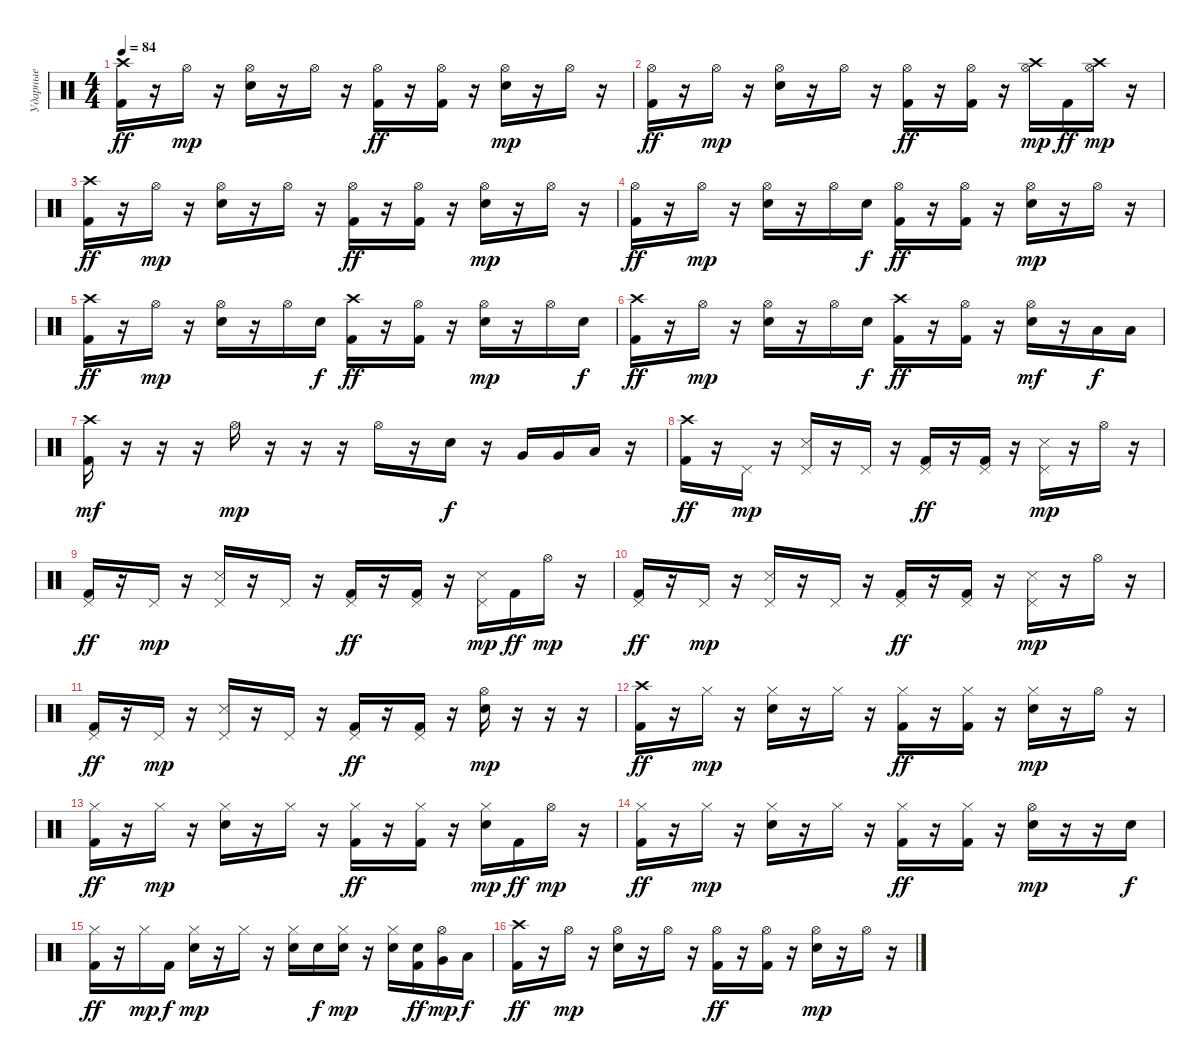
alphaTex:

\track ("Ударные" "Ударные") {instrument percussion}
\staff {score}
\articulation defaults
\ts (4 4)
\tempo 84
\clef neutral
\ks c
("Crash high (hit)" "Kick (hit) 2").16{dy ff} r.16 "Hi-Hat (open)".16{dy mp} r.16 ("Hi-Hat (open)" "Electric Snare (hit)").16 r.16 "Hi-Hat (open)".16 r.16 ("Hi-Hat (open)" "Kick (hit) 2").16{dy ff} r.16 ("Hi-Hat (open)" "Kick (hit) 2").16 r.16 ("Hi-Hat (open)" "Electric Snare (hit)").16{dy mp} r.16 "Hi-Hat (open)".16 r.16 |
("Hi-Hat (open)" "Kick (hit) 2").16{dy ff} r.16 "Hi-Hat (open)".16{dy mp} r.16 ("Hi-Hat (open)" "Electric Snare (hit)").16 r.16 "Hi-Hat (open)".16 r.16 ("Hi-Hat (open)" "Kick (hit) 2").16{dy ff} r.16 ("Hi-Hat (open)" "Kick (hit) 2").16 r.16 ("Hi-Hat (open)" "Crash high (hit)").16{dy mp} "Kick (hit) 2".16{dy ff} ("Hi-Hat (open)" "Crash high (hit)").16{dy mp} r.16 |
("Crash high (hit)" "Kick (hit) 2").16{dy ff} r.16 "Hi-Hat (open)".16{dy mp} r.16 ("Hi-Hat (open)" "Electric Snare (hit)").16 r.16 "Hi-Hat (open)".16 r.16 ("Hi-Hat (open)" "Kick (hit) 2").16{dy ff} r.16 ("Hi-Hat (open)" "Kick (hit) 2").16 r.16 ("Hi-Hat (open)" "Electric Snare (hit)").16{dy mp} r.16 "Hi-Hat (open)".16 r.16 |
("Hi-Hat (open)" "Kick (hit) 2").16{dy ff} r.16 "Hi-Hat (open)".16{dy mp} r.16 ("Hi-Hat (open)" "Electric Snare (hit)").16 r.16 "Hi-Hat (open)".16 "Electric Snare (hit)".16{dy f} ("Hi-Hat (open)" "Kick (hit) 2").16{dy ff} r.16 ("Hi-Hat (open)" "Kick (hit) 2").16 r.16 ("Hi-Hat (open)" "Electric Snare (hit)").16{dy mp} r.16 "Hi-Hat (open)".16 r.16 |
("Crash high (hit)" "Kick (hit) 2").16{dy ff} r.16 "Hi-Hat (open)".16{dy mp} r.16 ("Hi-Hat (open)" "Electric Snare (hit)").16 r.16 "Hi-Hat (open)".16 "Electric Snare (hit)".16{dy f} ("Crash high (hit)" "Kick (hit) 2").16{dy ff} r.16 ("Hi-Hat (open)" "Kick (hit) 2").16 r.16 ("Hi-Hat (open)" "Electric Snare (hit)").16{dy mp} r.16 "Hi-Hat (open)".16 "Electric Snare (hit)".16{dy f} |
("Crash high (hit)" "Kick (hit) 2").16{dy ff} r.16 "Hi-Hat (open)".16{dy mp} r.16 ("Hi-Hat (open)" "Electric Snare (hit)").16 r.16 "Hi-Hat (open)".16 "Electric Snare (hit)".16{dy f} ("Crash high (hit)" "Kick (hit) 2").16{dy ff} r.16 ("Hi-Hat (open)" "Kick (hit) 2").16 r.16 ("Hi-Hat (open)" "Electric Snare (hit)").16{dy mf} r.16 "Low Tom (hit)".16{dy f} "Low Tom (hit)".16 |
("Crash high (hit)" "Kick (hit) 2").16{dy mf} r.16 r.16 r.16 "Hi-Hat (open)".16{dy mp} r.16 r.16 r.16 "Hi-Hat (open)".16 r.16 "Electric Snare (hit)".16{dy f} r.16 "Very Low Tom (hit)".16 "Very Low Tom (hit)".16 "Low Floor Tom (hit)".16 r.16 |
("Crash high (hit)" "Kick (hit) 2").16{dy ff} r.16 "Pedal Hi-Hat (hit)".16{dy mp} r.16 ("Pedal Hi-Hat (hit)" "Snare (side stick) 3").16 r.16 "Pedal Hi-Hat (hit)".16 r.16 ("Pedal Hi-Hat (hit)" "Kick (hit) 2").16{dy ff} r.16 ("Pedal Hi-Hat (hit)" "Kick (hit) 2").16 r.16 ("Pedal Hi-Hat (hit)" "Snare (side stick) 3").16{dy mp} r.16 "Hi-Hat (open)".16 r.16 |
("Pedal Hi-Hat (hit)" "Kick (hit) 2").16{dy ff} r.16 "Pedal Hi-Hat (hit)".16{dy mp} r.16 ("Pedal Hi-Hat (hit)" "Snare (side stick) 3").16 r.16 "Pedal Hi-Hat (hit)".16 r.16 ("Pedal Hi-Hat (hit)" "Kick (hit) 2").16{dy ff} r.16 ("Pedal Hi-Hat (hit)" "Kick (hit) 2").16 r.16 ("Pedal Hi-Hat (hit)" "Snare (side stick) 3").16{dy mp} "Kick (hit) 2".16{dy ff} "Hi-Hat (open)".16{dy mp} r.16 |
("Pedal Hi-Hat (hit)" "Kick (hit) 2").16{dy ff} r.16 "Pedal Hi-Hat (hit)".16{dy mp} r.16 ("Pedal Hi-Hat (hit)" "Snare (side stick) 3").16 r.16 "Pedal Hi-Hat (hit)".16 r.16 ("Pedal Hi-Hat (hit)" "Kick (hit) 2").16{dy ff} r.16 ("Pedal Hi-Hat (hit)" "Kick (hit) 2").16 r.16 ("Pedal Hi-Hat (hit)" "Snare (side stick) 3").16{dy mp} r.16 "Hi-Hat (open)".16 r.16 |
("Pedal Hi-Hat (hit)" "Kick (hit) 2").16{dy ff} r.16 "Pedal Hi-Hat (hit)".16{dy mp} r.16 ("Pedal Hi-Hat (hit)" "Snare (side stick) 3").16 r.16 "Pedal Hi-Hat (hit)".16 r.16 ("Pedal Hi-Hat (hit)" "Kick (hit) 2").16{dy ff} r.16 ("Pedal Hi-Hat (hit)" "Kick (hit) 2").16 r.16 ("Hi-Hat (open)" "Electric Snare (hit)").16{dy mp} r.16 r.16 r.16 |
("Crash high (hit)" "Kick (hit) 2").16{dy ff} r.16 "Hi-Hat (closed)".16{dy mp} r.16 ("Hi-Hat (closed)" "Electric Snare (hit)").16 r.16 "Hi-Hat (closed)".16 r.16 ("Hi-Hat (closed)" "Kick (hit) 2").16{dy ff} r.16 ("Hi-Hat (closed)" "Kick (hit) 2").16 r.16 ("Hi-Hat (closed)" "Electric Snare (hit)").16{dy mp} r.16 "Hi-Hat (open)".16 r.16 |
("Hi-Hat (closed)" "Kick (hit) 2").16{dy ff} r.16 "Hi-Hat (closed)".16{dy mp} r.16 ("Hi-Hat (closed)" "Electric Snare (hit)").16 r.16 "Hi-Hat (closed)".16 r.16 ("Hi-Hat (closed)" "Kick (hit) 2").16{dy ff} r.16 ("Hi-Hat (closed)" "Kick (hit) 2").16 r.16 ("Hi-Hat (closed)" "Electric Snare (hit)").16{dy mp} "Kick (hit) 2".16{dy ff} "Hi-Hat (open)".16{dy mp} r.16 |
("Hi-Hat (closed)" "Kick (hit) 2").16{dy ff} r.16 "Hi-Hat (closed)".16{dy mp} r.16 ("Hi-Hat (closed)" "Electric Snare (hit)").16 r.16 "Hi-Hat (closed)".16 r.16 ("Hi-Hat (closed)" "Kick (hit) 2").16{dy ff} r.16 ("Hi-Hat (closed)" "Kick (hit) 2").16 r.16 ("Hi-Hat (open)" "Electric Snare (hit)").16{dy mp} r.16 r.16 "Electric Snare (hit)".16{dy f} |
("Hi-Hat (closed)" "Kick (hit) 2").16{dy ff} r.16 "Hi-Hat (closed)".16{dy mp} "Kick (hit) 2".16{dy f} ("Hi-Hat (closed)" "Electric Snare (hit)").16{dy mp} r.16 "Hi-Hat (closed)".16 r.16 ("Hi-Hat (closed)" "Electric Snare (hit)").16 "Electric Snare (hit)".16{dy f} ("Hi-Hat (closed)" "Electric Snare (hit)").16{dy mp} r.16 ("Hi-Hat (closed)" "Electric Snare (hit)").16 ("Electric Snare (hit)" "Kick (hit) 2").16{dy ff} ("Hi-Hat (open)" "Very Low Tom (hit)").16{dy mp} "Low Floor Tom (hit)".16{dy f} |
("Crash high (hit)" "Kick (hit) 2").16{dy ff} r.16 "Hi-Hat (open)".16{dy mp} r.16 ("Hi-Hat (open)" "Electric Snare (hit)").16 r.16 "Hi-Hat (open)".16 r.16 ("Hi-Hat (open)" "Kick (hit) 2").16{dy ff} r.16 ("Hi-Hat (open)" "Kick (hit) 2").16 r.16 ("Hi-Hat (open)" "Electric Snare (hit)").16{dy mp} r.16 "Hi-Hat (open)".16 r.16
